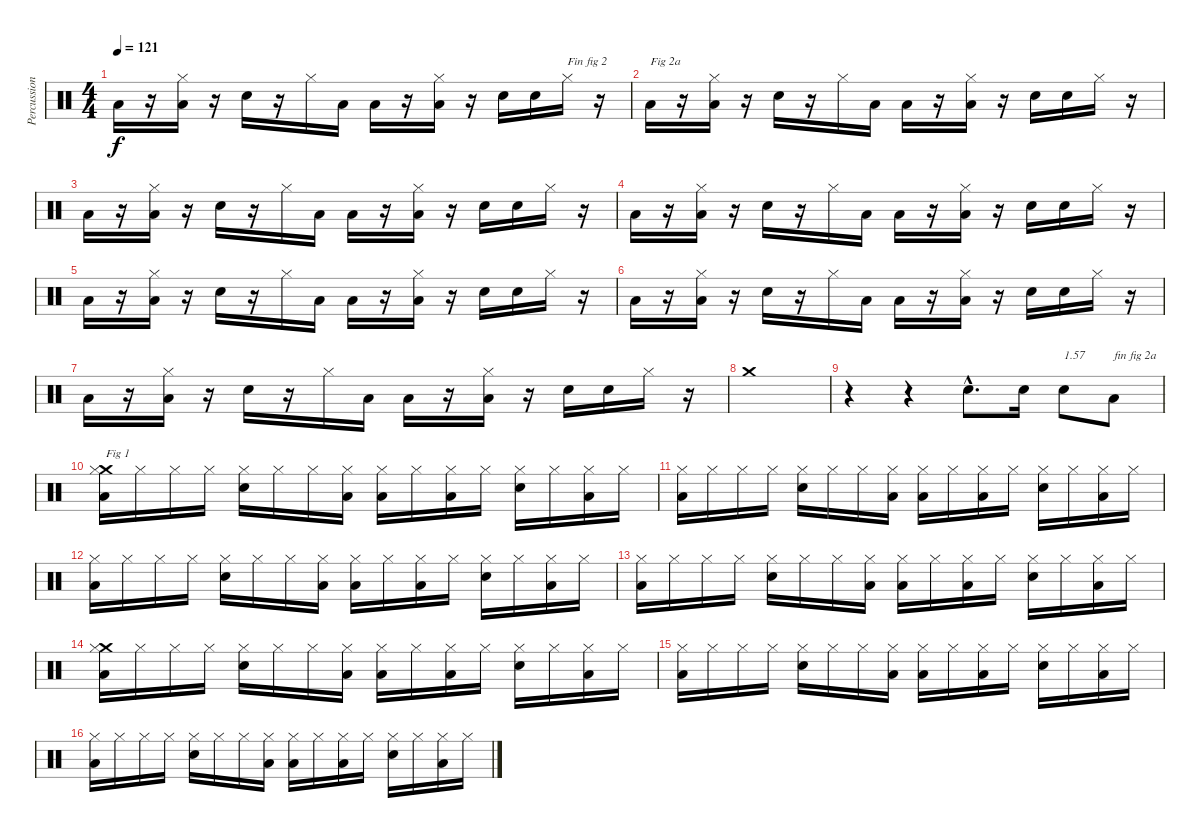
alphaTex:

\track ("Percussions" "Percussion") {instrument percussion}
\staff {score}
\articulation defaults
\ts (4 4)
\tempo 121
\clef neutral
\ks c "Low Floor Tom (hit)".16{dy f}
r.16 ("Low Floor Tom (hit)" "Hi-Hat (closed)").16 r.16 "Electric Snare (hit)".16 r.16 "Hi-Hat (closed)".16 "Low Floor Tom (hit)".16 "Low Floor Tom (hit)".16 r.16 ("Low Floor Tom (hit)" "Hi-Hat (closed)").16 r.16 "Electric Snare (hit)".16 "Electric Snare (hit)".16 "Hi-Hat (closed)".16{txt "Fin fig 2"} r.16 |
"Low Floor Tom (hit)".16{txt "Fig 2a"} r.16 ("Low Floor Tom (hit)" "Hi-Hat (closed)").16 r.16 "Electric Snare (hit)".16 r.16 "Hi-Hat (closed)".16 "Low Floor Tom (hit)".16 "Low Floor Tom (hit)".16 r.16 ("Low Floor Tom (hit)" "Hi-Hat (closed)").16 r.16 "Electric Snare (hit)".16 "Electric Snare (hit)".16 "Hi-Hat (closed)".16 r.16 |
"Low Floor Tom (hit)".16 r.16 ("Low Floor Tom (hit)" "Hi-Hat (closed)").16 r.16 "Electric Snare (hit)".16 r.16 "Hi-Hat (closed)".16 "Low Floor Tom (hit)".16 "Low Floor Tom (hit)".16 r.16 ("Low Floor Tom (hit)" "Hi-Hat (closed)").16 r.16 "Electric Snare (hit)".16 "Electric Snare (hit)".16 "Hi-Hat (closed)".16 r.16 |
"Low Floor Tom (hit)".16 r.16 ("Low Floor Tom (hit)" "Hi-Hat (closed)").16 r.16 "Electric Snare (hit)".16 r.16 "Hi-Hat (closed)".16 "Low Floor Tom (hit)".16 "Low Floor Tom (hit)".16 r.16 ("Low Floor Tom (hit)" "Hi-Hat (closed)").16 r.16 "Electric Snare (hit)".16 "Electric Snare (hit)".16 "Hi-Hat (closed)".16 r.16 |
"Low Floor Tom (hit)".16 r.16 ("Low Floor Tom (hit)" "Hi-Hat (closed)").16 r.16 "Electric Snare (hit)".16 r.16 "Hi-Hat (closed)".16 "Low Floor Tom (hit)".16 "Low Floor Tom (hit)".16 r.16 ("Low Floor Tom (hit)" "Hi-Hat (closed)").16 r.16 "Electric Snare (hit)".16 "Electric Snare (hit)".16 "Hi-Hat (closed)".16 r.16 |
"Low Floor Tom (hit)".16 r.16 ("Low Floor Tom (hit)" "Hi-Hat (closed)").16 r.16 "Electric Snare (hit)".16 r.16 "Hi-Hat (closed)".16 "Low Floor Tom (hit)".16 "Low Floor Tom (hit)".16 r.16 ("Low Floor Tom (hit)" "Hi-Hat (closed)").16 r.16 "Electric Snare (hit)".16 "Electric Snare (hit)".16 "Hi-Hat (closed)".16 r.16 |
"Low Floor Tom (hit)".16 r.16 ("Low Floor Tom (hit)" "Hi-Hat (closed)").16 r.16 "Electric Snare (hit)".16 r.16 "Hi-Hat (closed)".16 "Low Floor Tom (hit)".16 "Low Floor Tom (hit)".16 r.16 ("Low Floor Tom (hit)" "Hi-Hat (closed)").16 r.16 "Electric Snare (hit)".16 "Electric Snare (hit)".16 "Hi-Hat (closed)".16 r.16 |
"Crash medium (hit)".1 |
r.4 r.4 "Electric Snare (hit)"{hac}.8{d} "Electric Snare (hit)".16 "Electric Snare (hit)".8{txt "1.57"} "Low Floor Tom (hit)".8{txt "fin fig 2a"} |
("Low Floor Tom (hit)" "Crash medium (hit)" "Hi-Hat (closed)").16{txt "Fig 1"} "Hi-Hat (closed)".16 "Hi-Hat (closed)".16 "Hi-Hat (closed)".16 ("Electric Snare (hit)" "Hi-Hat (closed)").16 "Hi-Hat (closed)".16 "Hi-Hat (closed)".16 ("Low Floor Tom (hit)" "Hi-Hat (closed)").16 ("Low Floor Tom (hit)" "Hi-Hat (closed)").16 "Hi-Hat (closed)".16 ("Low Floor Tom (hit)" "Hi-Hat (closed)").16 "Hi-Hat (closed)".16 ("Electric Snare (hit)" "Hi-Hat (closed)").16 "Hi-Hat (closed)".16 ("Low Floor Tom (hit)" "Hi-Hat (closed)").16 "Hi-Hat (closed)".16 |
("Low Floor Tom (hit)" "Hi-Hat (closed)").16 "Hi-Hat (closed)".16 "Hi-Hat (closed)".16 "Hi-Hat (closed)".16 ("Electric Snare (hit)" "Hi-Hat (closed)").16 "Hi-Hat (closed)".16 "Hi-Hat (closed)".16 ("Low Floor Tom (hit)" "Hi-Hat (closed)").16 ("Low Floor Tom (hit)" "Hi-Hat (closed)").16 "Hi-Hat (closed)".16 ("Low Floor Tom (hit)" "Hi-Hat (closed)").16 "Hi-Hat (closed)".16 ("Electric Snare (hit)" "Hi-Hat (closed)").16 "Hi-Hat (closed)".16 ("Low Floor Tom (hit)" "Hi-Hat (closed)").16 "Hi-Hat (closed)".16 |
("Low Floor Tom (hit)" "Hi-Hat (closed)").16 "Hi-Hat (closed)".16 "Hi-Hat (closed)".16 "Hi-Hat (closed)".16 ("Electric Snare (hit)" "Hi-Hat (closed)").16 "Hi-Hat (closed)".16 "Hi-Hat (closed)".16 ("Low Floor Tom (hit)" "Hi-Hat (closed)").16 ("Low Floor Tom (hit)" "Hi-Hat (closed)").16 "Hi-Hat (closed)".16 ("Low Floor Tom (hit)" "Hi-Hat (closed)").16 "Hi-Hat (closed)".16 ("Electric Snare (hit)" "Hi-Hat (closed)").16 "Hi-Hat (closed)".16 ("Low Floor Tom (hit)" "Hi-Hat (closed)").16 "Hi-Hat (closed)".16 |
("Low Floor Tom (hit)" "Hi-Hat (closed)").16 "Hi-Hat (closed)".16 "Hi-Hat (closed)".16 "Hi-Hat (closed)".16 ("Electric Snare (hit)" "Hi-Hat (closed)").16 "Hi-Hat (closed)".16 "Hi-Hat (closed)".16 ("Low Floor Tom (hit)" "Hi-Hat (closed)").16 ("Low Floor Tom (hit)" "Hi-Hat (closed)").16 "Hi-Hat (closed)".16 ("Low Floor Tom (hit)" "Hi-Hat (closed)").16 "Hi-Hat (closed)".16 ("Electric Snare (hit)" "Hi-Hat (closed)").16 "Hi-Hat (closed)".16 ("Low Floor Tom (hit)" "Hi-Hat (closed)").16 "Hi-Hat (closed)".16 |
("Low Floor Tom (hit)" "Crash medium (hit)" "Hi-Hat (closed)").16 "Hi-Hat (closed)".16 "Hi-Hat (closed)".16 "Hi-Hat (closed)".16 ("Electric Snare (hit)" "Hi-Hat (closed)").16 "Hi-Hat (closed)".16 "Hi-Hat (closed)".16 ("Low Floor Tom (hit)" "Hi-Hat (closed)").16 ("Low Floor Tom (hit)" "Hi-Hat (closed)").16 "Hi-Hat (closed)".16 ("Low Floor Tom (hit)" "Hi-Hat (closed)").16 "Hi-Hat (closed)".16 ("Electric Snare (hit)" "Hi-Hat (closed)").16 "Hi-Hat (closed)".16 ("Low Floor Tom (hit)" "Hi-Hat (closed)").16 "Hi-Hat (closed)".16 |
("Low Floor Tom (hit)" "Hi-Hat (closed)").16 "Hi-Hat (closed)".16 "Hi-Hat (closed)".16 "Hi-Hat (closed)".16 ("Electric Snare (hit)" "Hi-Hat (closed)").16 "Hi-Hat (closed)".16 "Hi-Hat (closed)".16 ("Low Floor Tom (hit)" "Hi-Hat (closed)").16 ("Low Floor Tom (hit)" "Hi-Hat (closed)").16 "Hi-Hat (closed)".16 ("Low Floor Tom (hit)" "Hi-Hat (closed)").16 "Hi-Hat (closed)".16 ("Electric Snare (hit)" "Hi-Hat (closed)").16 "Hi-Hat (closed)".16 ("Low Floor Tom (hit)" "Hi-Hat (closed)").16 "Hi-Hat (closed)".16 |
("Low Floor Tom (hit)" "Hi-Hat (closed)").16 "Hi-Hat (closed)".16 "Hi-Hat (closed)".16 "Hi-Hat (closed)".16 ("Electric Snare (hit)" "Hi-Hat (closed)").16 "Hi-Hat (closed)".16 "Hi-Hat (closed)".16 ("Low Floor Tom (hit)" "Hi-Hat (closed)").16 ("Low Floor Tom (hit)" "Hi-Hat (closed)").16 "Hi-Hat (closed)".16 ("Low Floor Tom (hit)" "Hi-Hat (closed)").16 "Hi-Hat (closed)".16 ("Electric Snare (hit)" "Hi-Hat (closed)").16 "Hi-Hat (closed)".16 ("Low Floor Tom (hit)" "Hi-Hat (closed)").16 "Hi-Hat (closed)".16
